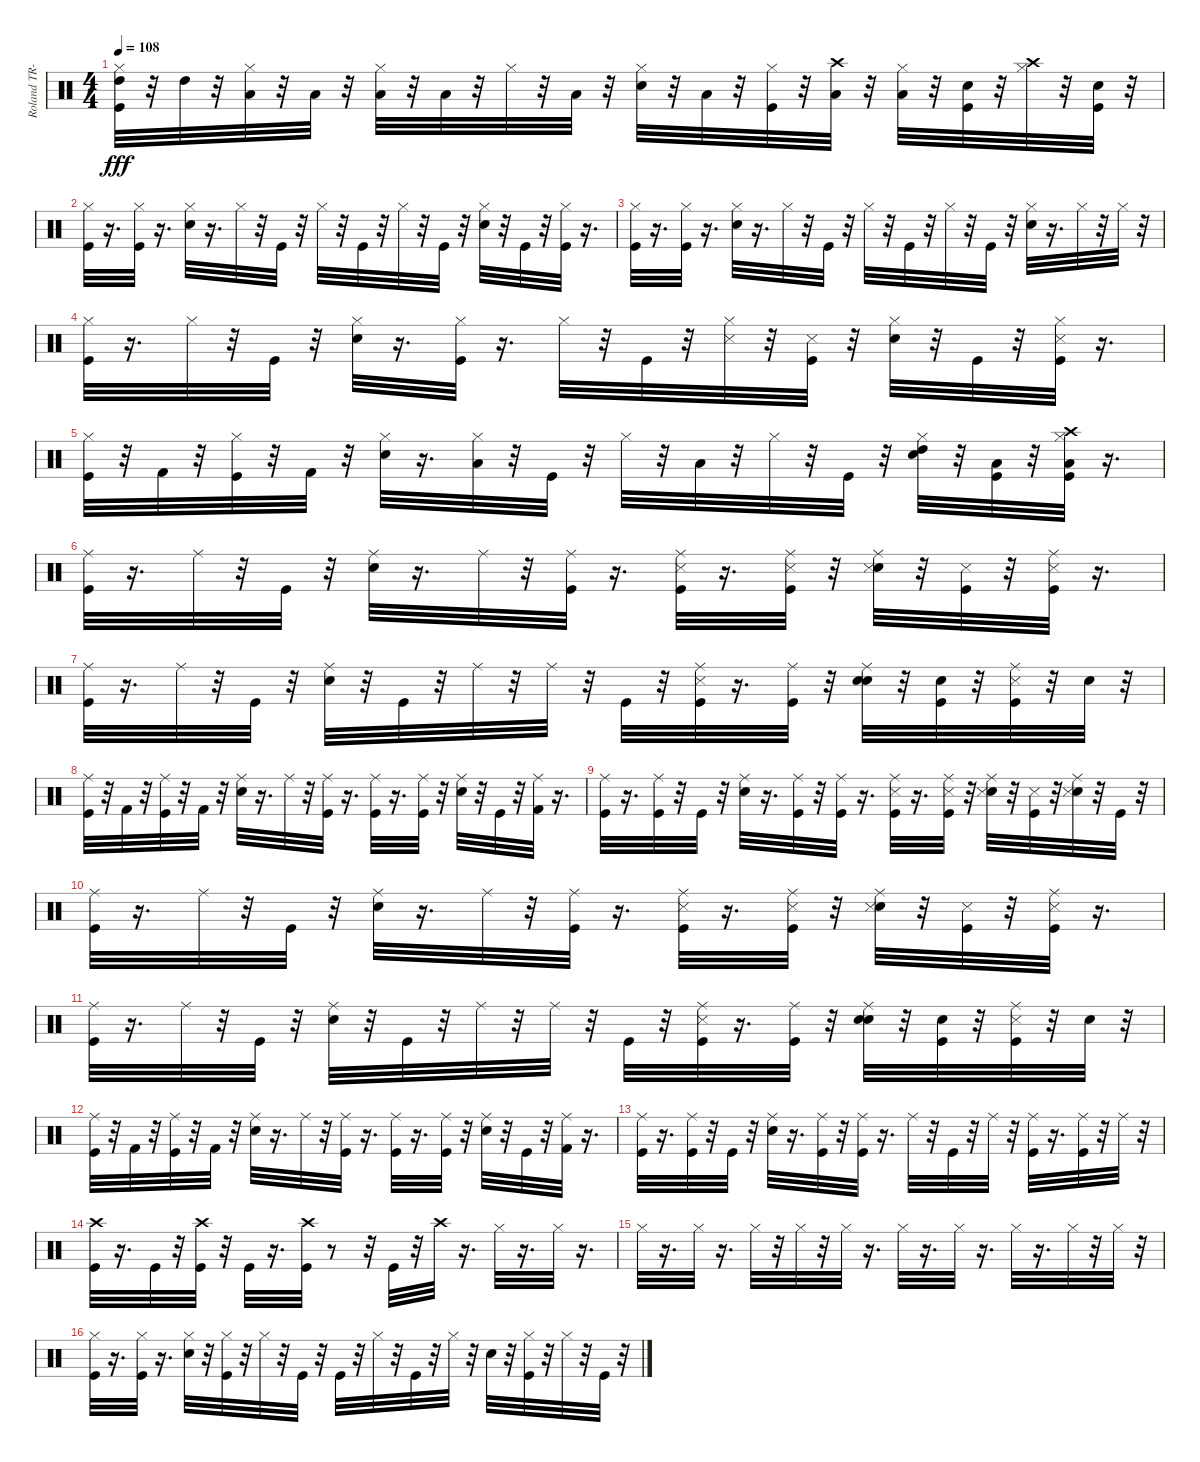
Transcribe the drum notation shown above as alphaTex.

\track ("Roland TR-707" "Roland TR-") {instrument percussion}
\staff {score}
\articulation defaults
\ts (4 4)
\tempo 108
\clef neutral
\ks c
("Kick (hit)" "High Tom (hit)" "Hi-Hat (closed)").32{dy fff} r.32 "High Tom (hit)".32 r.32 ("Low Tom (hit)" "Hi-Hat (closed)").32 r.32 "Low Tom (hit)".32 r.32 ("Low Floor Tom (hit)" "Hi-Hat (closed)").32 r.32 "Low Floor Tom (hit)".32 r.32 "Hi-Hat (closed)".32 r.32 "Low Floor Tom (hit)".32 r.32 ("Snare (hit) 2" "Hi-Hat (closed)").32 r.32 "Low Floor Tom (hit)".32 r.32 ("Kick (hit)" "Hi-Hat (closed)").32 r.32 ("Low Tom (hit)" "Crash high (hit)").32 r.32 ("Low Floor Tom (hit)" "Hi-Hat (closed)").32 r.32 ("Kick (hit)" "Hand Clap (hit)").32 r.32 ("Hi-Hat (closed)" "Crash high (hit)").32 r.32 ("Kick (hit)" "Hand Clap (hit)").32 r.32 |
("Kick (hit)" "Hi-Hat (closed)").32 r.16{d} ("Kick (hit)" "Hi-Hat (closed)").32 r.16{d} ("Snare (hit) 2" "Hi-Hat (closed)").32 r.16{d} "Hi-Hat (closed)".32 r.32 "Kick (hit)".32 r.32 "Hi-Hat (closed)".32 r.32 "Kick (hit)".32 r.32 "Hi-Hat (closed)".32 r.32 "Kick (hit)".32 r.32 ("Snare (hit) 2" "Hi-Hat (closed)").32 r.32 "Kick (hit)".32 r.32 ("Kick (hit)" "Hi-Hat (closed)").32 r.16{d} |
("Kick (hit)" "Hi-Hat (closed)").32 r.16{d} ("Kick (hit)" "Hi-Hat (closed)").32 r.16{d} ("Snare (hit) 2" "Hi-Hat (closed)").32 r.16{d} "Hi-Hat (closed)".32 r.32 "Kick (hit)".32 r.32 "Hi-Hat (closed)".32 r.32 "Kick (hit)".32 r.32 "Hi-Hat (closed)".32 r.32 "Kick (hit)".32 r.32 ("Snare (hit) 2" "Hi-Hat (closed)").32 r.16{d} "Hi-Hat (closed)".32 r.32 "Hi-Hat (closed)".32 r.32 |
("Kick (hit)" "Hi-Hat (closed)").32 r.16{d} "Hi-Hat (closed)".32 r.32 "Kick (hit)".32 r.32 ("Snare (hit) 2" "Hi-Hat (closed)").32 r.16{d} ("Kick (hit)" "Hi-Hat (closed)").32 r.16{d} "Hi-Hat (closed)".32 r.32 "Kick (hit)".32 r.32 ("Hi-Hat (closed)" "Snare (side stick) 3").32 r.32 ("Kick (hit)" "Snare (side stick) 3").32 r.32 ("Snare (hit) 2" "Hi-Hat (closed)").32 r.32 "Kick (hit)".32 r.32 ("Kick (hit)" "Hi-Hat (closed)" "Snare (side stick) 3").32 r.16{d} |
("Kick (hit)" "Hi-Hat (closed)").32 r.32 "Kick (hit) 2".32 r.32 ("Kick (hit)" "Hi-Hat (closed)").32 r.32 "Kick (hit) 2".32 r.32 ("Snare (hit) 2" "Hi-Hat (closed)").32 r.16{d} ("Low Tom (hit)" "Hi-Hat (closed)").32 r.32 "Kick (hit)".32 r.32 "Hi-Hat (closed)".32 r.32 "Low Floor Tom (hit)".32 r.32 "Hi-Hat (closed)".32 r.32 "Kick (hit)".32 r.32 ("Snare (hit) 2" "High Tom (hit)" "Hi-Hat (closed)").32 r.32 ("Kick (hit)" "Low Floor Tom (hit)").32 r.32 ("Kick (hit)" "Low Tom (hit)" "Hi-Hat (closed)" "Crash high (hit)").32 r.16{d} |
("Kick (hit)" "Ride (middle)").32 r.16{d} "Ride (middle)".32 r.32 "Kick (hit)".32 r.32 ("Snare (hit) 2" "Ride (middle)").32 r.16{d} "Ride (middle)".32 r.32 ("Kick (hit)" "Ride (middle)").32 r.16{d} ("Kick (hit)" "Snare (side stick) 3" "Ride (middle)").32 r.16{d} ("Kick (hit)" "Snare (side stick) 3" "Ride (middle)").32 r.32 ("Snare (hit) 2" "Snare (side stick) 3" "Ride (middle)").32 r.32 ("Kick (hit)" "Snare (side stick) 3").32 r.32 ("Kick (hit)" "Snare (side stick) 3" "Ride (middle)").32 r.16{d} |
("Kick (hit)" "Ride (middle)").32 r.16{d} "Ride (middle)".32 r.32 "Kick (hit)".32 r.32 ("Snare (hit) 2" "Ride (middle)").32 r.32 "Kick (hit)".32 r.32 "Ride (middle)".32 r.32 "Ride (middle)".32 r.32 "Kick (hit)".32 r.32 ("Kick (hit)" "Snare (side stick) 3" "Ride (middle)").32 r.16{d} ("Kick (hit)" "Ride (middle)").32 r.32 ("Snare (hit) 2" "Hand Clap (hit)" "Ride (middle)").32 r.32 ("Kick (hit)" "Hand Clap (hit)").32 r.32 ("Kick (hit)" "Snare (side stick) 3" "Ride (middle)").32 r.32 "Hand Clap (hit)".32 r.32 |
("Kick (hit)" "Ride (middle)").32 r.32 "Kick (hit) 2".32 r.32 ("Kick (hit)" "Ride (middle)").32 r.32 "Kick (hit) 2".32 r.32 ("Snare (hit) 2" "Ride (middle)").32 r.16{d} "Ride (middle)".32 r.32 ("Kick (hit)" "Ride (middle)").32 r.16{d} ("Kick (hit)" "Ride (middle)").32 r.16{d} ("Kick (hit)" "Ride (middle)").32 r.32 ("Snare (hit) 2" "Ride (middle)").32 r.32 "Kick (hit)".32 r.32 ("Kick (hit) 2" "Ride (middle)").32 r.16{d} |
("Kick (hit)" "Ride (middle)").32 r.16{d} ("Kick (hit)" "Ride (middle)").32 r.32 "Kick (hit)".32 r.32 ("Snare (hit) 2" "Ride (middle)").32 r.16{d} ("Kick (hit)" "Ride (middle)").32 r.32 ("Kick (hit)" "Ride (middle)").32 r.16{d} ("Kick (hit)" "Snare (side stick) 3" "Ride (middle)").32 r.16{d} ("Kick (hit)" "Snare (side stick) 3" "Ride (middle)").32 r.32 ("Snare (hit) 2" "Snare (side stick) 3" "Ride (middle)").32 r.32 ("Kick (hit)" "Snare (side stick) 3").32 r.32 ("Snare (hit) 2" "Snare (side stick) 3" "Ride (middle)").32 r.32 "Kick (hit)".32 r.32 |
("Kick (hit)" "Ride (middle)").32 r.16{d} "Ride (middle)".32 r.32 "Kick (hit)".32 r.32 ("Snare (hit) 2" "Ride (middle)").32 r.16{d} "Ride (middle)".32 r.32 ("Kick (hit)" "Ride (middle)").32 r.16{d} ("Kick (hit)" "Snare (side stick) 3" "Ride (middle)").32 r.16{d} ("Kick (hit)" "Snare (side stick) 3" "Ride (middle)").32 r.32 ("Snare (hit) 2" "Snare (side stick) 3" "Ride (middle)").32 r.32 ("Kick (hit)" "Snare (side stick) 3").32 r.32 ("Kick (hit)" "Snare (side stick) 3" "Ride (middle)").32 r.16{d} |
("Kick (hit)" "Ride (middle)").32 r.16{d} "Ride (middle)".32 r.32 "Kick (hit)".32 r.32 ("Snare (hit) 2" "Ride (middle)").32 r.32 "Kick (hit)".32 r.32 "Ride (middle)".32 r.32 "Ride (middle)".32 r.32 "Kick (hit)".32 r.32 ("Kick (hit)" "Snare (side stick) 3" "Ride (middle)").32 r.16{d} ("Kick (hit)" "Ride (middle)").32 r.32 ("Snare (hit) 2" "Hand Clap (hit)" "Ride (middle)").32 r.32 ("Kick (hit)" "Hand Clap (hit)").32 r.32 ("Kick (hit)" "Snare (side stick) 3" "Ride (middle)").32 r.32 "Hand Clap (hit)".32 r.32 |
("Kick (hit)" "Ride (middle)").32 r.32 "Kick (hit) 2".32 r.32 ("Kick (hit)" "Ride (middle)").32 r.32 "Kick (hit) 2".32 r.32 ("Snare (hit) 2" "Ride (middle)").32 r.16{d} "Ride (middle)".32 r.32 ("Kick (hit)" "Ride (middle)").32 r.16{d} ("Kick (hit)" "Ride (middle)").32 r.16{d} ("Kick (hit)" "Ride (middle)").32 r.32 ("Snare (hit) 2" "Ride (middle)").32 r.32 "Kick (hit)".32 r.32 ("Kick (hit) 2" "Ride (middle)").32 r.16{d} |
("Kick (hit)" "Ride (middle)").32 r.16{d} ("Kick (hit)" "Ride (middle)").32 r.32 "Kick (hit)".32 r.32 ("Snare (hit) 2" "Ride (middle)").32 r.16{d} ("Kick (hit)" "Ride (middle)").32 r.32 ("Kick (hit)" "Ride (middle)").32 r.16{d} "Ride (middle)".32 r.32 "Kick (hit)".32 r.32 "Ride (middle)".32 r.32 ("Kick (hit)" "Ride (middle)").32 r.16{d} ("Kick (hit)" "Ride (middle)").32 r.32 "Ride (middle)".32 r.32 |
("Kick (hit)" "Crash high (hit)").32 r.16{d} "Kick (hit)".32 r.32 ("Kick (hit)" "Crash high (hit)").32 r.32 "Kick (hit)".32 r.16{d} ("Kick (hit)" "Crash high (hit)").32 r.8 r.32 "Kick (hit)".32 r.32 "Crash high (hit)".32 r.16{d} "Hi-Hat (closed)".32 r.16{d} "Hi-Hat (closed)".32 r.16{d} |
"Hi-Hat (closed)".32 r.16{d} "Hi-Hat (closed)".32 r.16{d} "Hi-Hat (closed)".32 r.32 "Hi-Hat (closed)".32 r.32 "Hi-Hat (closed)".32 r.16{d} "Hi-Hat (closed)".32 r.16{d} "Hi-Hat (closed)".32 r.16{d} "Hi-Hat (closed)".32 r.16{d} "Hi-Hat (closed)".32 r.32 "Hi-Hat (closed)".32 r.32 |
("Kick (hit)" "Hi-Hat (closed)").32 r.16{d} ("Kick (hit)" "Hi-Hat (closed)").32 r.16{d} ("Snare (hit) 2" "Hi-Hat (closed)").32 r.32 ("Kick (hit)" "Hi-Hat (closed)").32 r.32 "Hi-Hat (closed)".32 r.32 "Kick (hit)".32 r.32 "Kick (hit)".32 r.32 "Hi-Hat (closed)".32 r.32 "Kick (hit)".32 r.32 "Hi-Hat (closed)".32 r.32 "Snare (hit) 2".32 r.32 ("Kick (hit)" "Hi-Hat (closed)").32 r.32 "Hi-Hat (closed)".32 r.32 "Kick (hit)".32 r.32
